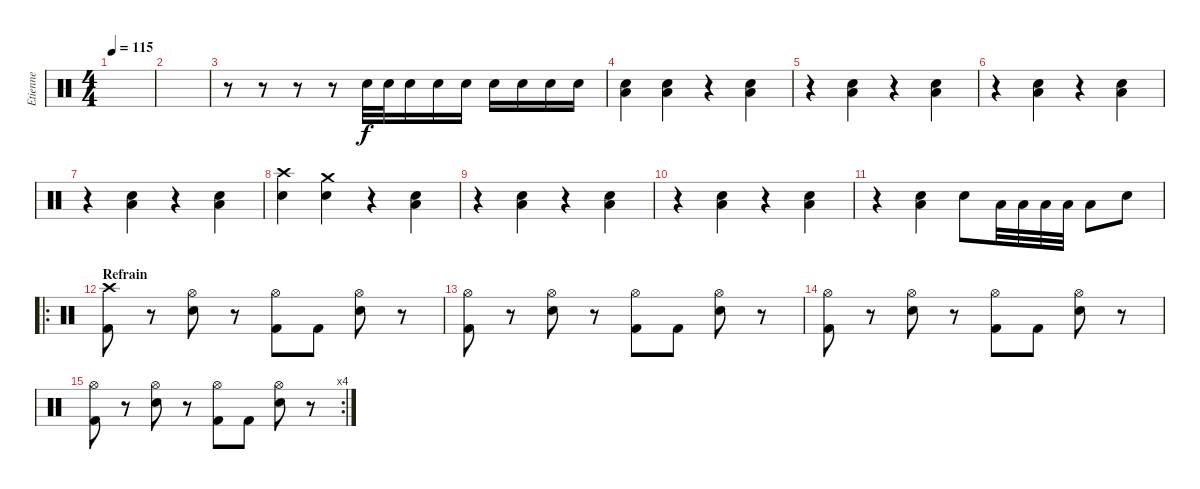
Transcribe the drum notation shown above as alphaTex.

\track ("Etienne" "Etienne") {instrument percussion}
\staff {score}
\articulation defaults
\ts (4 4)
\tempo 115
\clef neutral
\ks c
|
|
r.8 r.8 r.8 r.8 "Electric Snare (hit)".32 "Electric Snare (hit)".32 "Electric Snare (hit)".16 "Electric Snare (hit)".16 "Electric Snare (hit)".16 "Electric Snare (hit)".16 "Electric Snare (hit)".16 "Electric Snare (hit)".16 "Electric Snare (hit)".16 |
("Low Tom (hit)" "Electric Snare (hit)").4 ("Low Tom (hit)" "Electric Snare (hit)").4 r.4 ("Low Tom (hit)" "Electric Snare (hit)").4 |
r.4 ("Low Tom (hit)" "Electric Snare (hit)").4 r.4 ("Low Tom (hit)" "Electric Snare (hit)").4 |
r.4 ("Low Tom (hit)" "Electric Snare (hit)").4 r.4 ("Low Tom (hit)" "Electric Snare (hit)").4 |
r.4 ("Low Tom (hit)" "Electric Snare (hit)").4 r.4 ("Low Tom (hit)" "Electric Snare (hit)").4 |
("Crash high (hit)" "Electric Snare (hit)").4 ("Crash medium (hit)" "Electric Snare (hit)").4 r.4 ("Low Tom (hit)" "Electric Snare (hit)").4 |
r.4 ("Low Tom (hit)" "Electric Snare (hit)").4 r.4 ("Low Tom (hit)" "Electric Snare (hit)").4 |
r.4 ("Low Tom (hit)" "Electric Snare (hit)").4 r.4 ("Low Tom (hit)" "Electric Snare (hit)").4 |
r.4 ("Low Tom (hit)" "Electric Snare (hit)").4 "Electric Snare (hit)".8 "Low Tom (hit)".32 "Low Tom (hit)".32 "Low Tom (hit)".32 "Low Tom (hit)".32 "Low Tom (hit)".8 "Electric Snare (hit)".8 |
\ro
\section ("" "Refrain")
("Crash high (hit)" "Kick (hit) 2").8 r.8 ("Hi-Hat (open)" "Electric Snare (hit)").8 r.8 ("Hi-Hat (open)" "Kick (hit) 2").8 "Kick (hit) 2".8 ("Hi-Hat (open)" "Electric Snare (hit)").8 r.8 |
("Hi-Hat (open)" "Kick (hit) 2").8 r.8 ("Hi-Hat (open)" "Electric Snare (hit)").8 r.8 ("Hi-Hat (open)" "Kick (hit) 2").8 "Kick (hit) 2".8 ("Hi-Hat (open)" "Electric Snare (hit)").8 r.8 |
("Hi-Hat (open)" "Kick (hit) 2").8 r.8 ("Hi-Hat (open)" "Electric Snare (hit)").8 r.8 ("Hi-Hat (open)" "Kick (hit) 2").8 "Kick (hit) 2".8 ("Hi-Hat (open)" "Electric Snare (hit)").8 r.8 |
\rc 4
("Hi-Hat (open)" "Kick (hit) 2").8 r.8 ("Hi-Hat (open)" "Electric Snare (hit)").8 r.8 ("Hi-Hat (open)" "Kick (hit) 2").8 "Kick (hit) 2".8 ("Hi-Hat (open)" "Electric Snare (hit)").8 r.8
